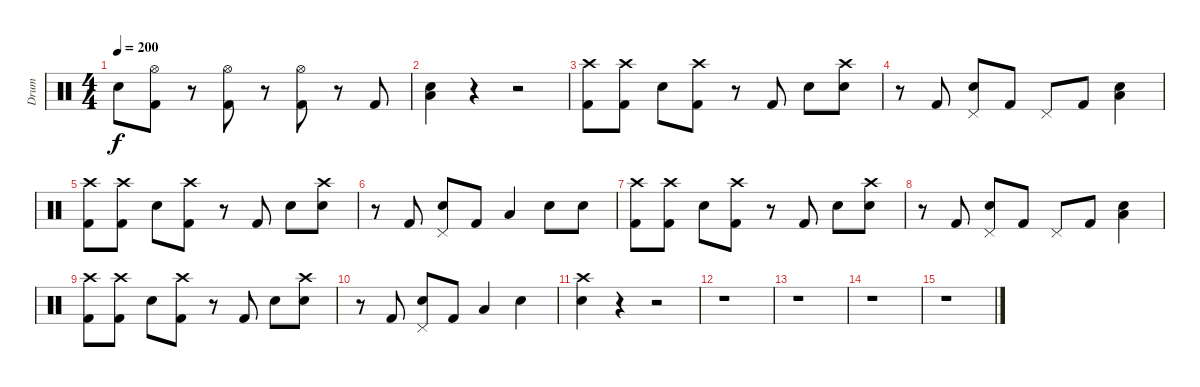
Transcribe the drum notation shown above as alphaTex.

\track ("Drum" "Drum") {instrument percussion}
\staff {score}
\articulation defaults
\ts (4 4)
\tempo 200
\clef neutral
\ks c "Electric Snare (hit)".8{dy f}
("Hi-Hat (open)" "Kick (hit) 2").8 r.8 ("Hi-Hat (open)" "Kick (hit) 2").8 r.8 ("Hi-Hat (open)" "Kick (hit) 2").8 r.8 "Kick (hit) 2".8 |
("Low Tom (hit)" "Electric Snare (hit)").4 r.4 r.2 |
("Crash high (hit)" "Kick (hit) 2").8 ("Crash high (hit)" "Kick (hit) 2").8 "Electric Snare (hit)".8 ("Crash high (hit)" "Kick (hit) 2").8 r.8 "Kick (hit) 2".8 "Electric Snare (hit)".8 ("Crash high (hit)" "Electric Snare (hit)").8 |
r.8 "Kick (hit) 2".8 ("Pedal Hi-Hat (hit)" "Electric Snare (hit)").8 "Kick (hit) 2".8 "Pedal Hi-Hat (hit)".8 "Kick (hit) 2".8 ("Electric Snare (hit)" "Low Floor Tom (hit)").4 |
("Crash high (hit)" "Kick (hit) 2").8 ("Crash high (hit)" "Kick (hit) 2").8 "Electric Snare (hit)".8 ("Crash high (hit)" "Kick (hit) 2").8 r.8 "Kick (hit) 2".8 "Electric Snare (hit)".8 ("Crash high (hit)" "Electric Snare (hit)").8 |
r.8 "Kick (hit) 2".8 ("Pedal Hi-Hat (hit)" "Electric Snare (hit)").8 "Kick (hit) 2".8 "Low Floor Tom (hit)".4 "Electric Snare (hit)".8 "Electric Snare (hit)".8 |
("Crash high (hit)" "Kick (hit) 2").8 ("Crash high (hit)" "Kick (hit) 2").8 "Electric Snare (hit)".8 ("Crash high (hit)" "Kick (hit) 2").8 r.8 "Kick (hit) 2".8 "Electric Snare (hit)".8 ("Crash high (hit)" "Electric Snare (hit)").8 |
r.8 "Kick (hit) 2".8 ("Pedal Hi-Hat (hit)" "Electric Snare (hit)").8 "Kick (hit) 2".8 "Pedal Hi-Hat (hit)".8 "Kick (hit) 2".8 ("Electric Snare (hit)" "Low Floor Tom (hit)").4 |
("Crash high (hit)" "Kick (hit) 2").8 ("Crash high (hit)" "Kick (hit) 2").8 "Electric Snare (hit)".8 ("Crash high (hit)" "Kick (hit) 2").8 r.8 "Kick (hit) 2".8 "Electric Snare (hit)".8 ("Crash high (hit)" "Electric Snare (hit)").8 |
r.8 "Kick (hit) 2".8 ("Pedal Hi-Hat (hit)" "Electric Snare (hit)").8 "Kick (hit) 2".8 "Low Floor Tom (hit)".4 "Electric Snare (hit)".4 |
("Crash high (hit)" "Electric Snare (hit)").4 r.4 r.2 |
r.1 |
r.1 |
r.1 |
r.1
